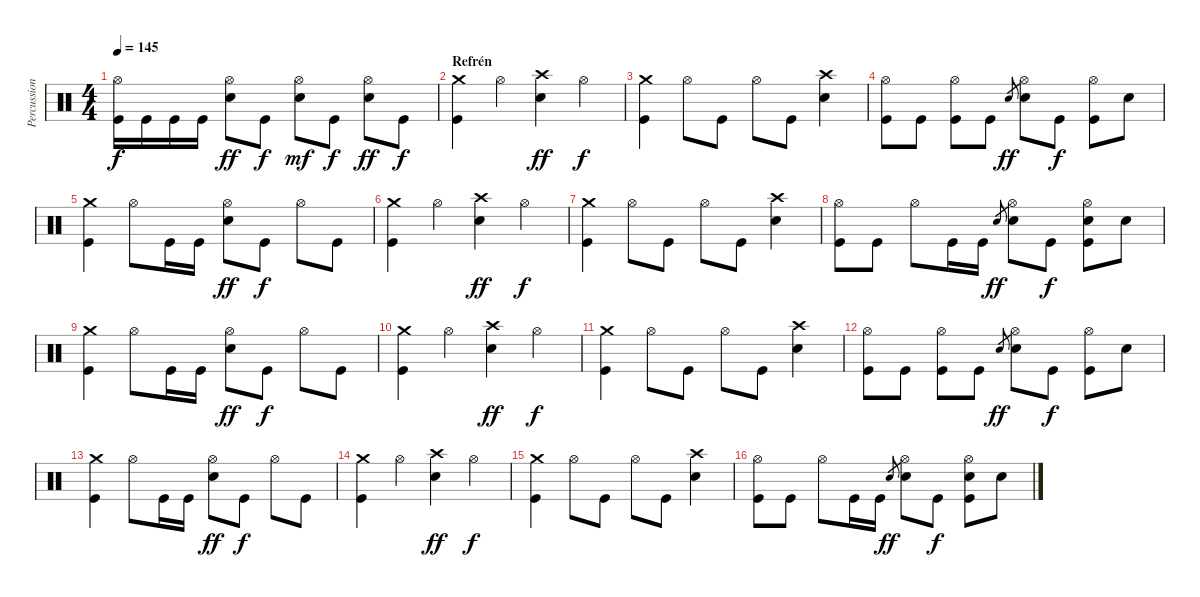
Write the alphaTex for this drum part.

\track ("Percussion" "Percussion") {instrument percussion}
\staff {score}
\articulation defaults
\ts (4 4)
\tempo 145
\clef neutral
\ks c
("Hi-Hat (open)" "Kick (hit)").16{dy f} "Kick (hit)".16 "Kick (hit)".16 "Kick (hit)".16 ("Hi-Hat (open)" "Snare (hit) 2").8{dy ff} "Kick (hit)".8{dy f} ("Hi-Hat (open)" "Snare (hit) 2").8{dy mf} "Kick (hit)".8{dy f} ("Hi-Hat (open)" "Snare (hit) 2").8{dy ff} "Kick (hit)".8{dy f} |
\section ("" "Refrén")
("Crash medium (hit)" "Kick (hit)").4 "Hi-Hat (open)".4 ("Crash high (hit)" "Snare (hit) 2").4{dy ff} "Hi-Hat (open)".4{dy f} |
("Crash medium (hit)" "Kick (hit)").4 "Hi-Hat (open)".8 "Kick (hit)".8 "Hi-Hat (open)".8 "Kick (hit)".8 ("Crash high (hit)" "Snare (hit) 2").4 |
("Hi-Hat (open)" "Kick (hit)").8 "Kick (hit)".8 ("Hi-Hat (open)" "Kick (hit)").8 "Kick (hit)".8 "Snare (hit) 2".8{gr dy ff} ("Hi-Hat (open)" "Snare (hit) 2").8 "Kick (hit)".8{dy f} ("Hi-Hat (open)" "Kick (hit)").8 "Snare (hit) 2".8 |
("Crash medium (hit)" "Kick (hit)").4 "Hi-Hat (open)".8 "Kick (hit)".16 "Kick (hit)".16 ("Hi-Hat (open)" "Snare (hit) 2").8{dy ff} "Kick (hit)".8{dy f} "Hi-Hat (open)".8 "Kick (hit)".8 |
("Crash medium (hit)" "Kick (hit)").4 "Hi-Hat (open)".4 ("Crash high (hit)" "Snare (hit) 2").4{dy ff} "Hi-Hat (open)".4{dy f} |
("Crash medium (hit)" "Kick (hit)").4 "Hi-Hat (open)".8 "Kick (hit)".8 "Hi-Hat (open)".8 "Kick (hit)".8 ("Crash high (hit)" "Snare (hit) 2").4 |
("Hi-Hat (open)" "Kick (hit)").8 "Kick (hit)".8 "Hi-Hat (open)".8 "Kick (hit)".16 "Kick (hit)".16 "Snare (hit) 2".8{gr dy ff} ("Hi-Hat (open)" "Snare (hit) 2").8 "Kick (hit)".8{dy f} ("Hi-Hat (open)" "Kick (hit)" "Snare (hit) 2").8 "Snare (hit) 2".8 |
("Crash medium (hit)" "Kick (hit)").4 "Hi-Hat (open)".8 "Kick (hit)".16 "Kick (hit)".16 ("Hi-Hat (open)" "Snare (hit) 2").8{dy ff} "Kick (hit)".8{dy f} "Hi-Hat (open)".8 "Kick (hit)".8 |
("Crash medium (hit)" "Kick (hit)").4 "Hi-Hat (open)".4 ("Crash high (hit)" "Snare (hit) 2").4{dy ff} "Hi-Hat (open)".4{dy f} |
("Crash medium (hit)" "Kick (hit)").4 "Hi-Hat (open)".8 "Kick (hit)".8 "Hi-Hat (open)".8 "Kick (hit)".8 ("Crash high (hit)" "Snare (hit) 2").4 |
("Hi-Hat (open)" "Kick (hit)").8 "Kick (hit)".8 ("Hi-Hat (open)" "Kick (hit)").8 "Kick (hit)".8 "Snare (hit) 2".8{gr dy ff} ("Hi-Hat (open)" "Snare (hit) 2").8 "Kick (hit)".8{dy f} ("Hi-Hat (open)" "Kick (hit)").8 "Snare (hit) 2".8 |
("Crash medium (hit)" "Kick (hit)").4 "Hi-Hat (open)".8 "Kick (hit)".16 "Kick (hit)".16 ("Hi-Hat (open)" "Snare (hit) 2").8{dy ff} "Kick (hit)".8{dy f} "Hi-Hat (open)".8 "Kick (hit)".8 |
("Crash medium (hit)" "Kick (hit)").4 "Hi-Hat (open)".4 ("Crash high (hit)" "Snare (hit) 2").4{dy ff} "Hi-Hat (open)".4{dy f} |
("Crash medium (hit)" "Kick (hit)").4 "Hi-Hat (open)".8 "Kick (hit)".8 "Hi-Hat (open)".8 "Kick (hit)".8 ("Crash high (hit)" "Snare (hit) 2").4 |
("Hi-Hat (open)" "Kick (hit)").8 "Kick (hit)".8 "Hi-Hat (open)".8 "Kick (hit)".16 "Kick (hit)".16 "Snare (hit) 2".8{gr dy ff} ("Hi-Hat (open)" "Snare (hit) 2").8 "Kick (hit)".8{dy f} ("Hi-Hat (open)" "Kick (hit)" "Snare (hit) 2").8 "Snare (hit) 2".8
